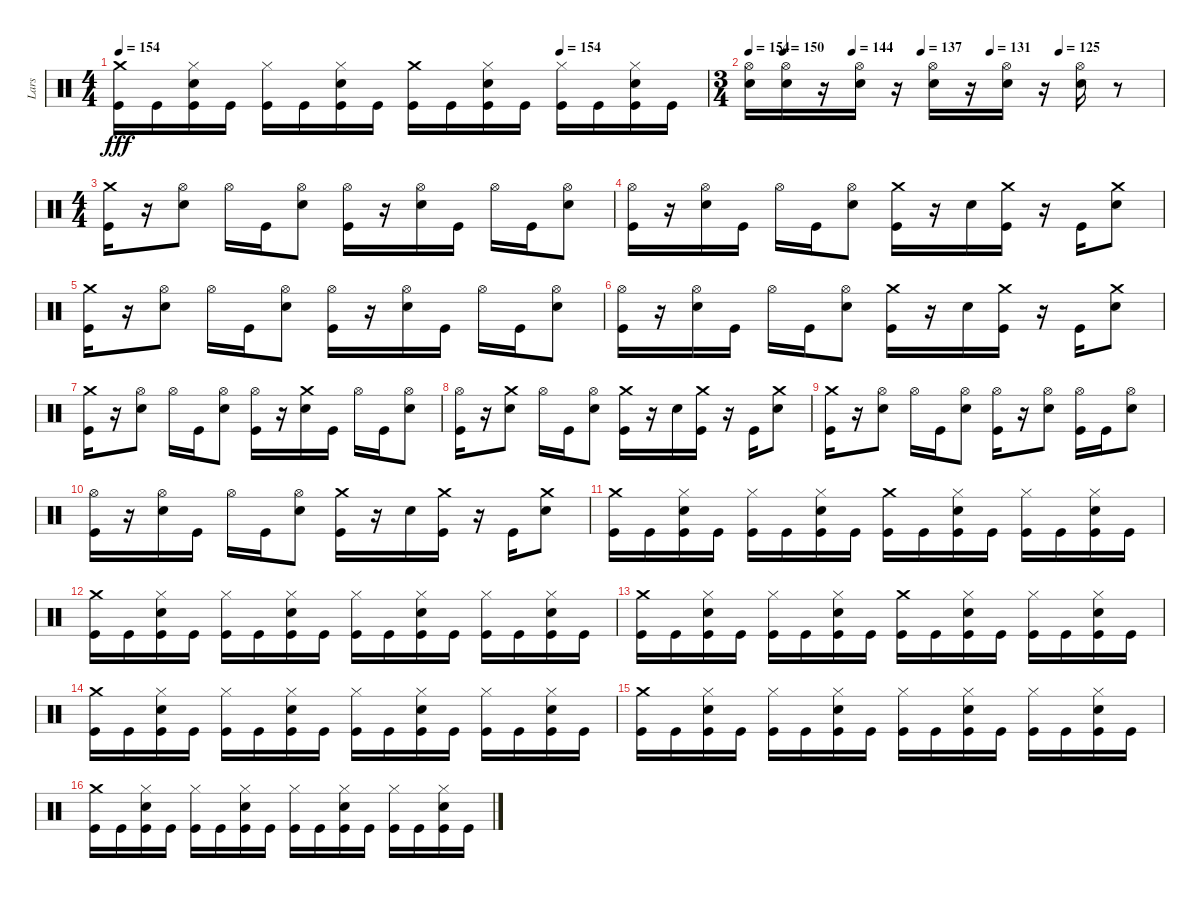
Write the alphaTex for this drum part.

\track ("Lars" "Lars") {instrument percussion bank 102}
\staff {score}
\articulation defaults
\ts (4 4)
\tempo 154
\tempo (154 0.75)
\clef neutral
\ks c
("Crash medium (hit)" "Kick (hit)").16{dy fff} "Kick (hit)".16 ("Snare (hit) 2" "Hi-Hat (closed)" "Kick (hit)").16 "Kick (hit)".16 ("Hi-Hat (closed)" "Kick (hit)").16 "Kick (hit)".16 ("Snare (hit) 2" "Hi-Hat (closed)" "Kick (hit)").16 "Kick (hit)".16 ("Crash medium (hit)" "Kick (hit)").16 "Kick (hit)".16 ("Snare (hit) 2" "Hi-Hat (closed)" "Kick (hit)").16 "Kick (hit)".16 ("Hi-Hat (closed)" "Kick (hit)").16 "Kick (hit)".16 ("Snare (hit) 2" "Hi-Hat (closed)" "Kick (hit)").16 "Kick (hit)".16 |
\ts (3 4)
\tempo 154
\tempo (150 0.08333333333333333)
\tempo (144 0.25)
\tempo (137 0.4166666666666667)
\tempo (131 0.5833333333333334)
\tempo (125 0.75)
("Hi-Hat (open)" "Snare (hit) 2").16 ("Hi-Hat (open)" "Snare (hit) 2").16 r.16 ("Hi-Hat (open)" "Snare (hit) 2").16 r.16 ("Hi-Hat (open)" "Snare (hit) 2").16 r.16 ("Hi-Hat (open)" "Snare (hit) 2").16 r.16 ("Hi-Hat (open)" "Snare (hit) 2").16 r.8 |
\ts (4 4)
("Kick (hit)" "Crash medium (hit)").16 r.16 ("Snare (hit) 2" "Hi-Hat (open)").8 "Hi-Hat (open)".16 "Kick (hit)".16 ("Snare (hit) 2" "Hi-Hat (open)").8 ("Kick (hit)" "Hi-Hat (open)").16 r.16 ("Snare (hit) 2" "Hi-Hat (open)").16 "Kick (hit)".16 "Hi-Hat (open)".16 "Kick (hit)".16 ("Snare (hit) 2" "Hi-Hat (open)").8 |
("Hi-Hat (open)" "Kick (hit)").16 r.16 ("Snare (hit) 2" "Hi-Hat (open)").16 "Kick (hit)".16 "Hi-Hat (open)".16 "Kick (hit)".16 ("Snare (hit) 2" "Hi-Hat (open)").8 ("Crash medium (hit)" "Kick (hit)").16 r.16 "Snare (hit) 2".16 ("Crash medium (hit)" "Kick (hit)").16 r.16 "Kick (hit)".16 ("Crash medium (hit)" "Snare (hit) 2").8 |
("Kick (hit)" "Crash medium (hit)").16 r.16 ("Snare (hit) 2" "Hi-Hat (open)").8 "Hi-Hat (open)".16 "Kick (hit)".16 ("Snare (hit) 2" "Hi-Hat (open)").8 ("Kick (hit)" "Hi-Hat (open)").16 r.16 ("Snare (hit) 2" "Hi-Hat (open)").16 "Kick (hit)".16 "Hi-Hat (open)".16 "Kick (hit)".16 ("Snare (hit) 2" "Hi-Hat (open)").8 |
("Hi-Hat (open)" "Kick (hit)").16 r.16 ("Snare (hit) 2" "Hi-Hat (open)").16 "Kick (hit)".16 "Hi-Hat (open)".16 "Kick (hit)".16 ("Snare (hit) 2" "Hi-Hat (open)").8 ("Crash medium (hit)" "Kick (hit)").16 r.16 "Snare (hit) 2".16 ("Crash medium (hit)" "Kick (hit)").16 r.16 "Kick (hit)".16 ("Crash medium (hit)" "Snare (hit) 2").8 |
("Kick (hit)" "Crash medium (hit)").16 r.16 ("Snare (hit) 2" "Hi-Hat (open)").8 "Hi-Hat (open)".16 "Kick (hit)".16 ("Snare (hit) 2" "Hi-Hat (open)").8 ("Kick (hit)" "Hi-Hat (open)").16 r.16 ("Crash medium (hit)" "Snare (hit) 2").16 "Kick (hit)".16 "Hi-Hat (open)".16 "Kick (hit)".16 ("Snare (hit) 2" "Hi-Hat (open)").8 |
("Hi-Hat (open)" "Kick (hit)").16 r.16 ("Crash medium (hit)" "Snare (hit) 2").8 "Hi-Hat (open)".16 "Kick (hit)".16 ("Snare (hit) 2" "Hi-Hat (open)").8 ("Crash medium (hit)" "Kick (hit)").16 r.16 "Snare (hit) 2".16 ("Crash medium (hit)" "Kick (hit)").16 r.16 "Kick (hit)".16 ("Crash medium (hit)" "Snare (hit) 2").8 |
("Kick (hit)" "Crash medium (hit)").16 r.16 ("Snare (hit) 2" "Hi-Hat (open)").8 "Hi-Hat (open)".16 "Kick (hit)".16 ("Snare (hit) 2" "Hi-Hat (open)").8 ("Kick (hit)" "Hi-Hat (open)").16 r.16 ("Snare (hit) 2" "Hi-Hat (open)").8 ("Kick (hit)" "Hi-Hat (open)").16 "Kick (hit)".16 ("Snare (hit) 2" "Hi-Hat (open)").8 |
("Hi-Hat (open)" "Kick (hit)").16 r.16 ("Snare (hit) 2" "Hi-Hat (open)").16 "Kick (hit)".16 "Hi-Hat (open)".16 "Kick (hit)".16 ("Snare (hit) 2" "Hi-Hat (open)").8 ("Crash medium (hit)" "Kick (hit)").16 r.16 "Snare (hit) 2".16 ("Crash medium (hit)" "Kick (hit)").16 r.16 "Kick (hit)".16 ("Crash medium (hit)" "Snare (hit) 2").8 |
("Crash medium (hit)" "Kick (hit)").16 "Kick (hit)".16 ("Snare (hit) 2" "Hi-Hat (closed)" "Kick (hit)").16 "Kick (hit)".16 ("Hi-Hat (closed)" "Kick (hit)").16 "Kick (hit)".16 ("Snare (hit) 2" "Hi-Hat (closed)" "Kick (hit)").16 "Kick (hit)".16 ("Crash medium (hit)" "Kick (hit)").16 "Kick (hit)".16 ("Snare (hit) 2" "Hi-Hat (closed)" "Kick (hit)").16 "Kick (hit)".16 ("Hi-Hat (closed)" "Kick (hit)").16 "Kick (hit)".16 ("Snare (hit) 2" "Hi-Hat (closed)" "Kick (hit)").16 "Kick (hit)".16 |
("Crash medium (hit)" "Kick (hit)").16 "Kick (hit)".16 ("Snare (hit) 2" "Hi-Hat (closed)" "Kick (hit)").16 "Kick (hit)".16 ("Hi-Hat (closed)" "Kick (hit)").16 "Kick (hit)".16 ("Snare (hit) 2" "Hi-Hat (closed)" "Kick (hit)").16 "Kick (hit)".16 ("Hi-Hat (closed)" "Kick (hit)").16 "Kick (hit)".16 ("Snare (hit) 2" "Hi-Hat (closed)" "Kick (hit)").16 "Kick (hit)".16 ("Hi-Hat (closed)" "Kick (hit)").16 "Kick (hit)".16 ("Snare (hit) 2" "Hi-Hat (closed)" "Kick (hit)").16 "Kick (hit)".16 |
("Crash medium (hit)" "Kick (hit)").16 "Kick (hit)".16 ("Snare (hit) 2" "Hi-Hat (closed)" "Kick (hit)").16 "Kick (hit)".16 ("Hi-Hat (closed)" "Kick (hit)").16 "Kick (hit)".16 ("Snare (hit) 2" "Hi-Hat (closed)" "Kick (hit)").16 "Kick (hit)".16 ("Crash medium (hit)" "Kick (hit)").16 "Kick (hit)".16 ("Snare (hit) 2" "Hi-Hat (closed)" "Kick (hit)").16 "Kick (hit)".16 ("Hi-Hat (closed)" "Kick (hit)").16 "Kick (hit)".16 ("Snare (hit) 2" "Hi-Hat (closed)" "Kick (hit)").16 "Kick (hit)".16 |
("Crash medium (hit)" "Kick (hit)").16 "Kick (hit)".16 ("Snare (hit) 2" "Hi-Hat (closed)" "Kick (hit)").16 "Kick (hit)".16 ("Hi-Hat (closed)" "Kick (hit)").16 "Kick (hit)".16 ("Snare (hit) 2" "Hi-Hat (closed)" "Kick (hit)").16 "Kick (hit)".16 ("Hi-Hat (closed)" "Kick (hit)").16 "Kick (hit)".16 ("Snare (hit) 2" "Hi-Hat (closed)" "Kick (hit)").16 "Kick (hit)".16 ("Hi-Hat (closed)" "Kick (hit)").16 "Kick (hit)".16 ("Snare (hit) 2" "Hi-Hat (closed)" "Kick (hit)").16 "Kick (hit)".16 |
("Crash medium (hit)" "Kick (hit)").16 "Kick (hit)".16 ("Snare (hit) 2" "Hi-Hat (closed)" "Kick (hit)").16 "Kick (hit)".16 ("Hi-Hat (closed)" "Kick (hit)").16 "Kick (hit)".16 ("Snare (hit) 2" "Hi-Hat (closed)" "Kick (hit)").16 "Kick (hit)".16 ("Hi-Hat (closed)" "Kick (hit)").16 "Kick (hit)".16 ("Snare (hit) 2" "Hi-Hat (closed)" "Kick (hit)").16 "Kick (hit)".16 ("Hi-Hat (closed)" "Kick (hit)").16 "Kick (hit)".16 ("Snare (hit) 2" "Hi-Hat (closed)" "Kick (hit)").16 "Kick (hit)".16 |
("Crash medium (hit)" "Kick (hit)").16 "Kick (hit)".16 ("Snare (hit) 2" "Hi-Hat (closed)" "Kick (hit)").16 "Kick (hit)".16 ("Hi-Hat (closed)" "Kick (hit)").16 "Kick (hit)".16 ("Snare (hit) 2" "Hi-Hat (closed)" "Kick (hit)").16 "Kick (hit)".16 ("Hi-Hat (closed)" "Kick (hit)").16 "Kick (hit)".16 ("Snare (hit) 2" "Hi-Hat (closed)" "Kick (hit)").16 "Kick (hit)".16 ("Hi-Hat (closed)" "Kick (hit)").16 "Kick (hit)".16 ("Snare (hit) 2" "Hi-Hat (closed)" "Kick (hit)").16 "Kick (hit)".16
